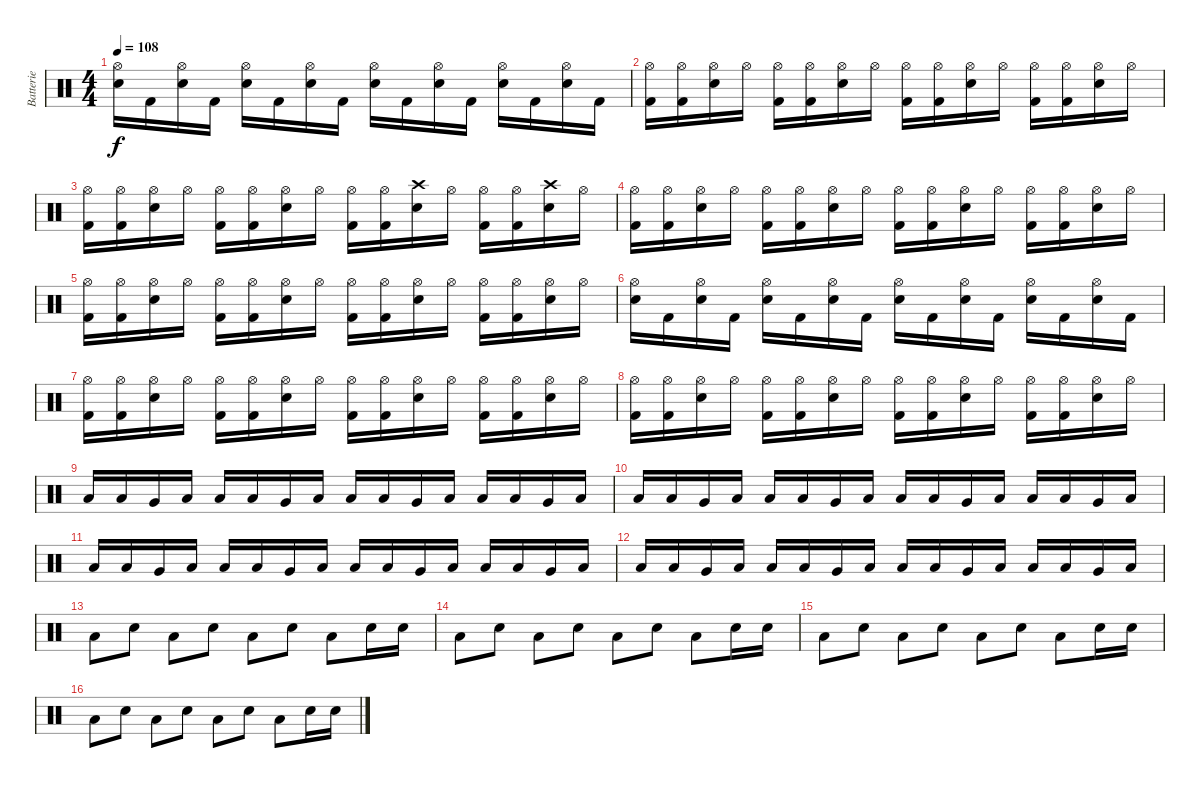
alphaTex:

\track ("Batterie" "Batterie") {instrument percussion}
\staff {score}
\articulation defaults
\ts (4 4)
\tempo 108
\clef neutral
\ks c
("Electric Snare (hit)" "Hi-Hat (open)").16{dy f} "Kick (hit) 2".16 ("Electric Snare (hit)" "Hi-Hat (open)").16 "Kick (hit) 2".16 ("Electric Snare (hit)" "Hi-Hat (open)").16 "Kick (hit) 2".16 ("Electric Snare (hit)" "Hi-Hat (open)").16 "Kick (hit) 2".16 ("Electric Snare (hit)" "Hi-Hat (open)").16 "Kick (hit) 2".16 ("Electric Snare (hit)" "Hi-Hat (open)").16 "Kick (hit) 2".16 ("Electric Snare (hit)" "Hi-Hat (open)").16 "Kick (hit) 2".16 ("Electric Snare (hit)" "Hi-Hat (open)").16 "Kick (hit) 2".16 |
("Kick (hit) 2" "Hi-Hat (open)").16 ("Kick (hit) 2" "Hi-Hat (open)").16 ("Electric Snare (hit)" "Hi-Hat (open)").16 "Hi-Hat (open)".16 ("Kick (hit) 2" "Hi-Hat (open)").16 ("Kick (hit) 2" "Hi-Hat (open)").16 ("Electric Snare (hit)" "Hi-Hat (open)").16 "Hi-Hat (open)".16 ("Kick (hit) 2" "Hi-Hat (open)").16 ("Kick (hit) 2" "Hi-Hat (open)").16 ("Electric Snare (hit)" "Hi-Hat (open)").16 "Hi-Hat (open)".16 ("Kick (hit) 2" "Hi-Hat (open)").16 ("Kick (hit) 2" "Hi-Hat (open)").16 ("Electric Snare (hit)" "Hi-Hat (open)").16 "Hi-Hat (open)".16 |
("Kick (hit) 2" "Hi-Hat (open)").16 ("Kick (hit) 2" "Hi-Hat (open)").16 ("Electric Snare (hit)" "Hi-Hat (open)").16 "Hi-Hat (open)".16 ("Kick (hit) 2" "Hi-Hat (open)").16 ("Kick (hit) 2" "Hi-Hat (open)").16 ("Electric Snare (hit)" "Hi-Hat (open)").16 "Hi-Hat (open)".16 ("Kick (hit) 2" "Hi-Hat (open)").16 ("Kick (hit) 2" "Hi-Hat (open)").16 ("Electric Snare (hit)" "Crash high (hit)").16 "Hi-Hat (open)".16 ("Kick (hit) 2" "Hi-Hat (open)").16 ("Kick (hit) 2" "Hi-Hat (open)").16 ("Electric Snare (hit)" "Crash high (hit)").16 "Hi-Hat (open)".16 |
("Kick (hit) 2" "Hi-Hat (open)").16 ("Kick (hit) 2" "Hi-Hat (open)").16 ("Electric Snare (hit)" "Hi-Hat (open)").16 "Hi-Hat (open)".16 ("Kick (hit) 2" "Hi-Hat (open)").16 ("Kick (hit) 2" "Hi-Hat (open)").16 ("Electric Snare (hit)" "Hi-Hat (open)").16 "Hi-Hat (open)".16 ("Kick (hit) 2" "Hi-Hat (open)").16 ("Kick (hit) 2" "Hi-Hat (open)").16 ("Electric Snare (hit)" "Hi-Hat (open)").16 "Hi-Hat (open)".16 ("Kick (hit) 2" "Hi-Hat (open)").16 ("Kick (hit) 2" "Hi-Hat (open)").16 ("Electric Snare (hit)" "Hi-Hat (open)").16 "Hi-Hat (open)".16 |
("Kick (hit) 2" "Hi-Hat (open)").16 ("Kick (hit) 2" "Hi-Hat (open)").16 ("Electric Snare (hit)" "Hi-Hat (open)").16 "Hi-Hat (open)".16 ("Kick (hit) 2" "Hi-Hat (open)").16 ("Kick (hit) 2" "Hi-Hat (open)").16 ("Electric Snare (hit)" "Hi-Hat (open)").16 "Hi-Hat (open)".16 ("Kick (hit) 2" "Hi-Hat (open)").16 ("Kick (hit) 2" "Hi-Hat (open)").16 ("Electric Snare (hit)" "Hi-Hat (open)").16 "Hi-Hat (open)".16 ("Kick (hit) 2" "Hi-Hat (open)").16 ("Kick (hit) 2" "Hi-Hat (open)").16 ("Electric Snare (hit)" "Hi-Hat (open)").16 "Hi-Hat (open)".16 |
("Electric Snare (hit)" "Hi-Hat (open)").16 "Kick (hit) 2".16 ("Electric Snare (hit)" "Hi-Hat (open)").16 "Kick (hit) 2".16 ("Electric Snare (hit)" "Hi-Hat (open)").16 "Kick (hit) 2".16 ("Electric Snare (hit)" "Hi-Hat (open)").16 "Kick (hit) 2".16 ("Electric Snare (hit)" "Hi-Hat (open)").16 "Kick (hit) 2".16 ("Electric Snare (hit)" "Hi-Hat (open)").16 "Kick (hit) 2".16 ("Electric Snare (hit)" "Hi-Hat (open)").16 "Kick (hit) 2".16 ("Electric Snare (hit)" "Hi-Hat (open)").16 "Kick (hit) 2".16 |
("Kick (hit) 2" "Hi-Hat (open)").16 ("Kick (hit) 2" "Hi-Hat (open)").16 ("Electric Snare (hit)" "Hi-Hat (open)").16 "Hi-Hat (open)".16 ("Kick (hit) 2" "Hi-Hat (open)").16 ("Kick (hit) 2" "Hi-Hat (open)").16 ("Electric Snare (hit)" "Hi-Hat (open)").16 "Hi-Hat (open)".16 ("Kick (hit) 2" "Hi-Hat (open)").16 ("Kick (hit) 2" "Hi-Hat (open)").16 ("Electric Snare (hit)" "Hi-Hat (open)").16 "Hi-Hat (open)".16 ("Kick (hit) 2" "Hi-Hat (open)").16 ("Kick (hit) 2" "Hi-Hat (open)").16 ("Electric Snare (hit)" "Hi-Hat (open)").16 "Hi-Hat (open)".16 |
("Kick (hit) 2" "Hi-Hat (open)").16 ("Kick (hit) 2" "Hi-Hat (open)").16 ("Electric Snare (hit)" "Hi-Hat (open)").16 "Hi-Hat (open)".16 ("Kick (hit) 2" "Hi-Hat (open)").16 ("Kick (hit) 2" "Hi-Hat (open)").16 ("Electric Snare (hit)" "Hi-Hat (open)").16 "Hi-Hat (open)".16 ("Kick (hit) 2" "Hi-Hat (open)").16 ("Kick (hit) 2" "Hi-Hat (open)").16 ("Electric Snare (hit)" "Hi-Hat (open)").16 "Hi-Hat (open)".16 ("Kick (hit) 2" "Hi-Hat (open)").16 ("Kick (hit) 2" "Hi-Hat (open)").16 ("Electric Snare (hit)" "Hi-Hat (open)").16 "Hi-Hat (open)".16 |
"Low Floor Tom (hit)".16 "Low Floor Tom (hit)".16 "Very Low Tom (hit)".16 "Low Floor Tom (hit)".16 "Low Floor Tom (hit)".16 "Low Floor Tom (hit)".16 "Very Low Tom (hit)".16 "Low Floor Tom (hit)".16 "Low Floor Tom (hit)".16 "Low Floor Tom (hit)".16 "Very Low Tom (hit)".16 "Low Floor Tom (hit)".16 "Low Floor Tom (hit)".16 "Low Floor Tom (hit)".16 "Very Low Tom (hit)".16 "Low Floor Tom (hit)".16 |
"Low Floor Tom (hit)".16 "Low Floor Tom (hit)".16 "Very Low Tom (hit)".16 "Low Floor Tom (hit)".16 "Low Floor Tom (hit)".16 "Low Floor Tom (hit)".16 "Very Low Tom (hit)".16 "Low Floor Tom (hit)".16 "Low Floor Tom (hit)".16 "Low Floor Tom (hit)".16 "Very Low Tom (hit)".16 "Low Floor Tom (hit)".16 "Low Floor Tom (hit)".16 "Low Floor Tom (hit)".16 "Very Low Tom (hit)".16 "Low Floor Tom (hit)".16 |
"Low Floor Tom (hit)".16 "Low Floor Tom (hit)".16 "Very Low Tom (hit)".16 "Low Floor Tom (hit)".16 "Low Floor Tom (hit)".16 "Low Floor Tom (hit)".16 "Very Low Tom (hit)".16 "Low Floor Tom (hit)".16 "Low Floor Tom (hit)".16 "Low Floor Tom (hit)".16 "Very Low Tom (hit)".16 "Low Floor Tom (hit)".16 "Low Floor Tom (hit)".16 "Low Floor Tom (hit)".16 "Very Low Tom (hit)".16 "Low Floor Tom (hit)".16 |
"Low Floor Tom (hit)".16 "Low Floor Tom (hit)".16 "Very Low Tom (hit)".16 "Low Floor Tom (hit)".16 "Low Floor Tom (hit)".16 "Low Floor Tom (hit)".16 "Very Low Tom (hit)".16 "Low Floor Tom (hit)".16 "Low Floor Tom (hit)".16 "Low Floor Tom (hit)".16 "Very Low Tom (hit)".16 "Low Floor Tom (hit)".16 "Low Floor Tom (hit)".16 "Low Floor Tom (hit)".16 "Very Low Tom (hit)".16 "Low Floor Tom (hit)".16 |
"Low Floor Tom (hit)".8 "Electric Snare (hit)".8 "Low Floor Tom (hit)".8 "Electric Snare (hit)".8 "Low Floor Tom (hit)".8 "Electric Snare (hit)".8 "Low Floor Tom (hit)".8 "Electric Snare (hit)".16 "Electric Snare (hit)".16 |
"Low Floor Tom (hit)".8 "Electric Snare (hit)".8 "Low Floor Tom (hit)".8 "Electric Snare (hit)".8 "Low Floor Tom (hit)".8 "Electric Snare (hit)".8 "Low Floor Tom (hit)".8 "Electric Snare (hit)".16 "Electric Snare (hit)".16 |
"Low Floor Tom (hit)".8 "Electric Snare (hit)".8 "Low Floor Tom (hit)".8 "Electric Snare (hit)".8 "Low Floor Tom (hit)".8 "Electric Snare (hit)".8 "Low Floor Tom (hit)".8 "Electric Snare (hit)".16 "Electric Snare (hit)".16 |
"Low Floor Tom (hit)".8 "Electric Snare (hit)".8 "Low Floor Tom (hit)".8 "Electric Snare (hit)".8 "Low Floor Tom (hit)".8 "Electric Snare (hit)".8 "Low Floor Tom (hit)".8 "Electric Snare (hit)".16 "Electric Snare (hit)".16
